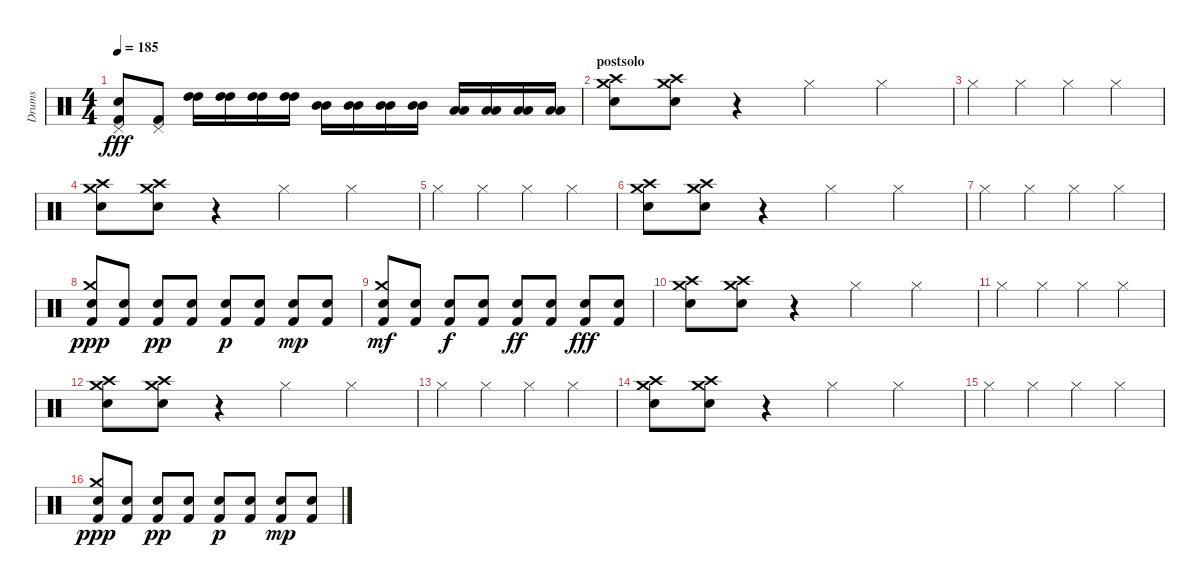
\track ("Drums" "Drums") {instrument percussion}
\staff {score}
\articulation defaults
\ts (4 4)
\tempo 185
\clef neutral
\ks c
("Pedal Hi-Hat (hit)" "Snare (hit) 2" "Kick (hit) 2").8{dy fff} ("Pedal Hi-Hat (hit)" "Kick (hit) 2").8 ("High Tom (hit)" "High Tom (hit)").16 ("High Tom (hit)" "High Tom (hit)").16 ("High Tom (hit)" "High Tom (hit)").16 ("High Tom (hit)" "High Tom (hit)").16 ("Mid Tom (hit)" "Mid Tom (hit)").16 ("Mid Tom (hit)" "Mid Tom (hit)").16 ("Mid Tom (hit)" "Mid Tom (hit)").16 ("Mid Tom (hit)" "Mid Tom (hit)").16 ("Low Tom (hit)" "Low Tom (hit)").16 ("Low Tom (hit)" "Low Tom (hit)").16 ("Low Tom (hit)" "Low Tom (hit)").16 ("Low Tom (hit)" "Low Tom (hit)").16 |
\section ("" "postsolo")
("Crash high (hit)" "Crash medium (hit)" "Electric Snare (hit)").8 ("Crash high (hit)" "Crash medium (hit)" "Electric Snare (hit)").8 r.4 "Hi-Hat (closed)".4 "Hi-Hat (closed)".4 |
"Hi-Hat (closed)".4 "Hi-Hat (closed)".4 "Hi-Hat (closed)".4 "Hi-Hat (closed)".4 |
("Crash high (hit)" "Crash medium (hit)" "Electric Snare (hit)").8 ("Crash high (hit)" "Crash medium (hit)" "Electric Snare (hit)").8 r.4 "Hi-Hat (closed)".4 "Hi-Hat (closed)".4 |
"Hi-Hat (closed)".4 "Hi-Hat (closed)".4 "Hi-Hat (closed)".4 "Hi-Hat (closed)".4 |
("Crash high (hit)" "Crash medium (hit)" "Electric Snare (hit)").8 ("Crash high (hit)" "Crash medium (hit)" "Electric Snare (hit)").8 r.4 "Hi-Hat (closed)".4 "Hi-Hat (closed)".4 |
"Hi-Hat (closed)".4 "Hi-Hat (closed)".4 "Hi-Hat (closed)".4 "Hi-Hat (closed)".4 |
("Crash medium (hit)" "Kick (hit) 2" "Electric Snare (hit)").8{dy ppp} ("Kick (hit) 2" "Electric Snare (hit)").8 ("Kick (hit) 2" "Electric Snare (hit)").8{dy pp} ("Kick (hit) 2" "Electric Snare (hit)").8 ("Kick (hit) 2" "Electric Snare (hit)").8{dy p} ("Kick (hit) 2" "Electric Snare (hit)").8 ("Kick (hit) 2" "Electric Snare (hit)").8{dy mp} ("Kick (hit) 2" "Electric Snare (hit)").8 |
("Crash medium (hit)" "Kick (hit) 2" "Electric Snare (hit)").8{dy mf} ("Kick (hit) 2" "Electric Snare (hit)").8 ("Kick (hit) 2" "Electric Snare (hit)").8{dy f} ("Kick (hit) 2" "Electric Snare (hit)").8 ("Kick (hit) 2" "Electric Snare (hit)").8{dy ff} ("Kick (hit) 2" "Electric Snare (hit)").8 ("Kick (hit) 2" "Electric Snare (hit)").8{dy fff} ("Kick (hit) 2" "Electric Snare (hit)").8 |
("Crash high (hit)" "Crash medium (hit)" "Electric Snare (hit)").8 ("Crash high (hit)" "Crash medium (hit)" "Electric Snare (hit)").8 r.4 "Hi-Hat (closed)".4 "Hi-Hat (closed)".4 |
"Hi-Hat (closed)".4 "Hi-Hat (closed)".4 "Hi-Hat (closed)".4 "Hi-Hat (closed)".4 |
("Crash high (hit)" "Crash medium (hit)" "Electric Snare (hit)").8 ("Crash high (hit)" "Crash medium (hit)" "Electric Snare (hit)").8 r.4 "Hi-Hat (closed)".4 "Hi-Hat (closed)".4 |
"Hi-Hat (closed)".4 "Hi-Hat (closed)".4 "Hi-Hat (closed)".4 "Hi-Hat (closed)".4 |
("Crash high (hit)" "Crash medium (hit)" "Electric Snare (hit)").8 ("Crash high (hit)" "Crash medium (hit)" "Electric Snare (hit)").8 r.4 "Hi-Hat (closed)".4 "Hi-Hat (closed)".4 |
"Hi-Hat (closed)".4 "Hi-Hat (closed)".4 "Hi-Hat (closed)".4 "Hi-Hat (closed)".4 |
("Crash medium (hit)" "Kick (hit) 2" "Electric Snare (hit)").8{dy ppp} ("Kick (hit) 2" "Electric Snare (hit)").8 ("Kick (hit) 2" "Electric Snare (hit)").8{dy pp} ("Kick (hit) 2" "Electric Snare (hit)").8 ("Kick (hit) 2" "Electric Snare (hit)").8{dy p} ("Kick (hit) 2" "Electric Snare (hit)").8 ("Kick (hit) 2" "Electric Snare (hit)").8{dy mp} ("Kick (hit) 2" "Electric Snare (hit)").8
